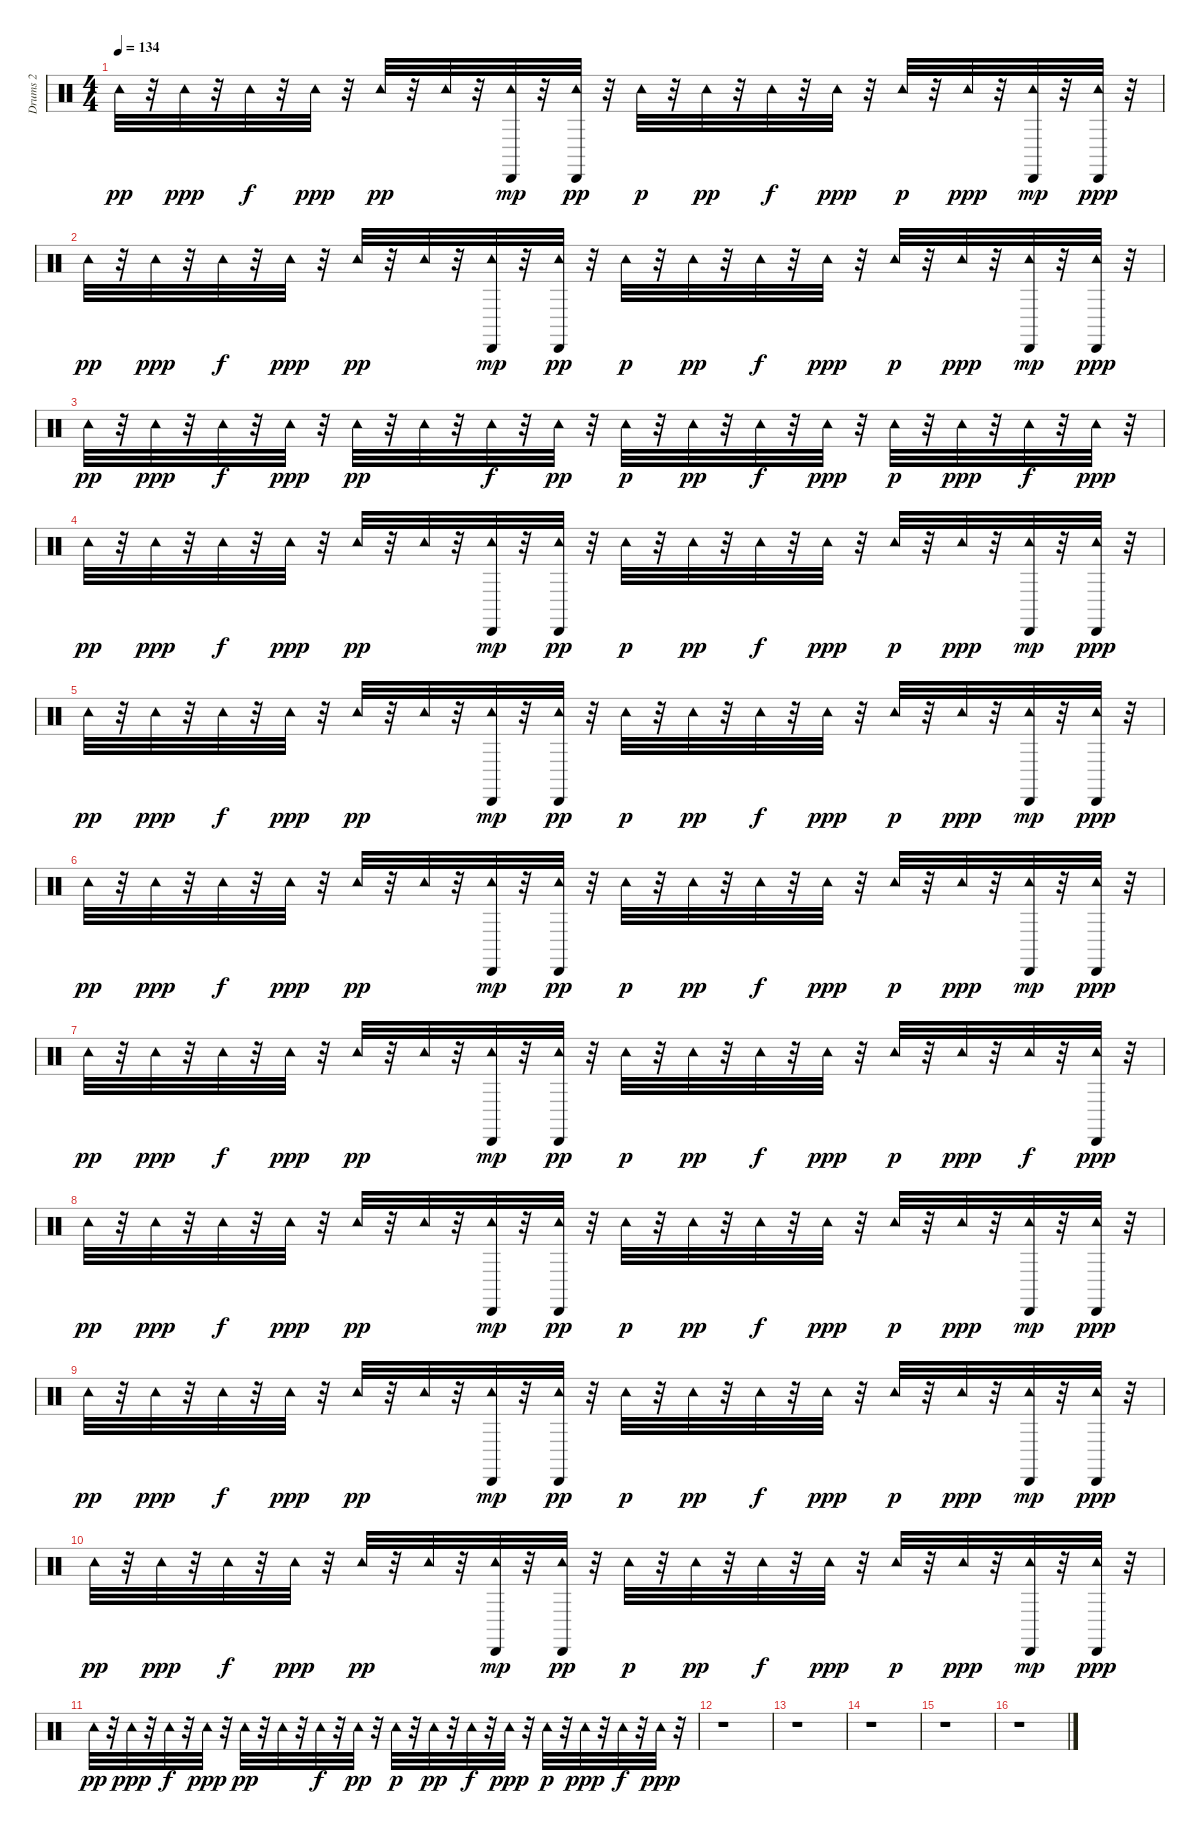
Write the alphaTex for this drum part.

\track ("Drums 2" "Drums 2") {instrument percussion}
\staff {score}
\articulation defaults
\ts (4 4)
\tempo 134
\clef neutral
\ks c "Tambourine (hit)".32{dy pp}
r.32 "Tambourine (hit)".32{dy ppp} r.32 "Tambourine (hit)".32{dy f} r.32 "Tambourine (hit)".32{dy ppp} r.32 "Tambourine (hit)".32{dy pp} r.32 "Tambourine (hit)".32 r.32 ("Cabasa (hit)" "Tambourine (hit)").32{dy mp} r.32 ("Cabasa (hit)" "Tambourine (hit)").32{dy pp} r.32 "Tambourine (hit)".32{dy p} r.32 "Tambourine (hit)".32{dy pp} r.32 "Tambourine (hit)".32{dy f} r.32 "Tambourine (hit)".32{dy ppp} r.32 "Tambourine (hit)".32{dy p} r.32 "Tambourine (hit)".32{dy ppp} r.32 ("Cabasa (hit)" "Tambourine (hit)").32{dy mp} r.32 ("Cabasa (hit)" "Tambourine (hit)").32{dy ppp} r.32 |
"Tambourine (hit)".32{dy pp} r.32 "Tambourine (hit)".32{dy ppp} r.32 "Tambourine (hit)".32{dy f} r.32 "Tambourine (hit)".32{dy ppp} r.32 "Tambourine (hit)".32{dy pp} r.32 "Tambourine (hit)".32 r.32 ("Cabasa (hit)" "Tambourine (hit)").32{dy mp} r.32 ("Cabasa (hit)" "Tambourine (hit)").32{dy pp} r.32 "Tambourine (hit)".32{dy p} r.32 "Tambourine (hit)".32{dy pp} r.32 "Tambourine (hit)".32{dy f} r.32 "Tambourine (hit)".32{dy ppp} r.32 "Tambourine (hit)".32{dy p} r.32 "Tambourine (hit)".32{dy ppp} r.32 ("Cabasa (hit)" "Tambourine (hit)").32{dy mp} r.32 ("Cabasa (hit)" "Tambourine (hit)").32{dy ppp} r.32 |
"Tambourine (hit)".32{dy pp} r.32 "Tambourine (hit)".32{dy ppp} r.32 "Tambourine (hit)".32{dy f} r.32 "Tambourine (hit)".32{dy ppp} r.32 "Tambourine (hit)".32{dy pp} r.32 "Tambourine (hit)".32 r.32 "Tambourine (hit)".32{dy f} r.32 "Tambourine (hit)".32{dy pp} r.32 "Tambourine (hit)".32{dy p} r.32 "Tambourine (hit)".32{dy pp} r.32 "Tambourine (hit)".32{dy f} r.32 "Tambourine (hit)".32{dy ppp} r.32 "Tambourine (hit)".32{dy p} r.32 "Tambourine (hit)".32{dy ppp} r.32 "Tambourine (hit)".32{dy f} r.32 "Tambourine (hit)".32{dy ppp} r.32 |
"Tambourine (hit)".32{dy pp} r.32 "Tambourine (hit)".32{dy ppp} r.32 "Tambourine (hit)".32{dy f} r.32 "Tambourine (hit)".32{dy ppp} r.32 "Tambourine (hit)".32{dy pp} r.32 "Tambourine (hit)".32 r.32 ("Cabasa (hit)" "Tambourine (hit)").32{dy mp} r.32 ("Cabasa (hit)" "Tambourine (hit)").32{dy pp} r.32 "Tambourine (hit)".32{dy p} r.32 "Tambourine (hit)".32{dy pp} r.32 "Tambourine (hit)".32{dy f} r.32 "Tambourine (hit)".32{dy ppp} r.32 "Tambourine (hit)".32{dy p} r.32 "Tambourine (hit)".32{dy ppp} r.32 ("Cabasa (hit)" "Tambourine (hit)").32{dy mp} r.32 ("Cabasa (hit)" "Tambourine (hit)").32{dy ppp} r.32 |
"Tambourine (hit)".32{dy pp} r.32 "Tambourine (hit)".32{dy ppp} r.32 "Tambourine (hit)".32{dy f} r.32 "Tambourine (hit)".32{dy ppp} r.32 "Tambourine (hit)".32{dy pp} r.32 "Tambourine (hit)".32 r.32 ("Cabasa (hit)" "Tambourine (hit)").32{dy mp} r.32 ("Cabasa (hit)" "Tambourine (hit)").32{dy pp} r.32 "Tambourine (hit)".32{dy p} r.32 "Tambourine (hit)".32{dy pp} r.32 "Tambourine (hit)".32{dy f} r.32 "Tambourine (hit)".32{dy ppp} r.32 "Tambourine (hit)".32{dy p} r.32 "Tambourine (hit)".32{dy ppp} r.32 ("Cabasa (hit)" "Tambourine (hit)").32{dy mp} r.32 ("Cabasa (hit)" "Tambourine (hit)").32{dy ppp} r.32 |
"Tambourine (hit)".32{dy pp} r.32 "Tambourine (hit)".32{dy ppp} r.32 "Tambourine (hit)".32{dy f} r.32 "Tambourine (hit)".32{dy ppp} r.32 "Tambourine (hit)".32{dy pp} r.32 "Tambourine (hit)".32 r.32 ("Cabasa (hit)" "Tambourine (hit)").32{dy mp} r.32 ("Cabasa (hit)" "Tambourine (hit)").32{dy pp} r.32 "Tambourine (hit)".32{dy p} r.32 "Tambourine (hit)".32{dy pp} r.32 "Tambourine (hit)".32{dy f} r.32 "Tambourine (hit)".32{dy ppp} r.32 "Tambourine (hit)".32{dy p} r.32 "Tambourine (hit)".32{dy ppp} r.32 ("Cabasa (hit)" "Tambourine (hit)").32{dy mp} r.32 ("Cabasa (hit)" "Tambourine (hit)").32{dy ppp} r.32 |
"Tambourine (hit)".32{dy pp} r.32 "Tambourine (hit)".32{dy ppp} r.32 "Tambourine (hit)".32{dy f} r.32 "Tambourine (hit)".32{dy ppp} r.32 "Tambourine (hit)".32{dy pp} r.32 "Tambourine (hit)".32 r.32 ("Cabasa (hit)" "Tambourine (hit)").32{dy mp} r.32 ("Cabasa (hit)" "Tambourine (hit)").32{dy pp} r.32 "Tambourine (hit)".32{dy p} r.32 "Tambourine (hit)".32{dy pp} r.32 "Tambourine (hit)".32{dy f} r.32 "Tambourine (hit)".32{dy ppp} r.32 "Tambourine (hit)".32{dy p} r.32 "Tambourine (hit)".32{dy ppp} r.32 "Tambourine (hit)".32{dy f} r.32 ("Cabasa (hit)" "Tambourine (hit)").32{dy ppp} r.32 |
"Tambourine (hit)".32{dy pp} r.32 "Tambourine (hit)".32{dy ppp} r.32 "Tambourine (hit)".32{dy f} r.32 "Tambourine (hit)".32{dy ppp} r.32 "Tambourine (hit)".32{dy pp} r.32 "Tambourine (hit)".32 r.32 ("Cabasa (hit)" "Tambourine (hit)").32{dy mp} r.32 ("Cabasa (hit)" "Tambourine (hit)").32{dy pp} r.32 "Tambourine (hit)".32{dy p} r.32 "Tambourine (hit)".32{dy pp} r.32 "Tambourine (hit)".32{dy f} r.32 "Tambourine (hit)".32{dy ppp} r.32 "Tambourine (hit)".32{dy p} r.32 "Tambourine (hit)".32{dy ppp} r.32 ("Cabasa (hit)" "Tambourine (hit)").32{dy mp} r.32 ("Cabasa (hit)" "Tambourine (hit)").32{dy ppp} r.32 |
"Tambourine (hit)".32{dy pp} r.32 "Tambourine (hit)".32{dy ppp} r.32 "Tambourine (hit)".32{dy f} r.32 "Tambourine (hit)".32{dy ppp} r.32 "Tambourine (hit)".32{dy pp} r.32 "Tambourine (hit)".32 r.32 ("Cabasa (hit)" "Tambourine (hit)").32{dy mp} r.32 ("Cabasa (hit)" "Tambourine (hit)").32{dy pp} r.32 "Tambourine (hit)".32{dy p} r.32 "Tambourine (hit)".32{dy pp} r.32 "Tambourine (hit)".32{dy f} r.32 "Tambourine (hit)".32{dy ppp} r.32 "Tambourine (hit)".32{dy p} r.32 "Tambourine (hit)".32{dy ppp} r.32 ("Cabasa (hit)" "Tambourine (hit)").32{dy mp} r.32 ("Cabasa (hit)" "Tambourine (hit)").32{dy ppp} r.32 |
"Tambourine (hit)".32{dy pp} r.32 "Tambourine (hit)".32{dy ppp} r.32 "Tambourine (hit)".32{dy f} r.32 "Tambourine (hit)".32{dy ppp} r.32 "Tambourine (hit)".32{dy pp} r.32 "Tambourine (hit)".32 r.32 ("Cabasa (hit)" "Tambourine (hit)").32{dy mp} r.32 ("Cabasa (hit)" "Tambourine (hit)").32{dy pp} r.32 "Tambourine (hit)".32{dy p} r.32 "Tambourine (hit)".32{dy pp} r.32 "Tambourine (hit)".32{dy f} r.32 "Tambourine (hit)".32{dy ppp} r.32 "Tambourine (hit)".32{dy p} r.32 "Tambourine (hit)".32{dy ppp} r.32 ("Cabasa (hit)" "Tambourine (hit)").32{dy mp} r.32 ("Cabasa (hit)" "Tambourine (hit)").32{dy ppp} r.32 |
"Tambourine (hit)".32{dy pp} r.32 "Tambourine (hit)".32{dy ppp} r.32 "Tambourine (hit)".32{dy f} r.32 "Tambourine (hit)".32{dy ppp} r.32 "Tambourine (hit)".32{dy pp} r.32 "Tambourine (hit)".32 r.32 "Tambourine (hit)".32{dy f} r.32 "Tambourine (hit)".32{dy pp} r.32 "Tambourine (hit)".32{dy p} r.32 "Tambourine (hit)".32{dy pp} r.32 "Tambourine (hit)".32{dy f} r.32 "Tambourine (hit)".32{dy ppp} r.32 "Tambourine (hit)".32{dy p} r.32 "Tambourine (hit)".32{dy ppp} r.32 "Tambourine (hit)".32{dy f} r.32 "Tambourine (hit)".32{dy ppp} r.32 |
r.1 |
r.1 |
r.1 |
r.1 |
r.1
